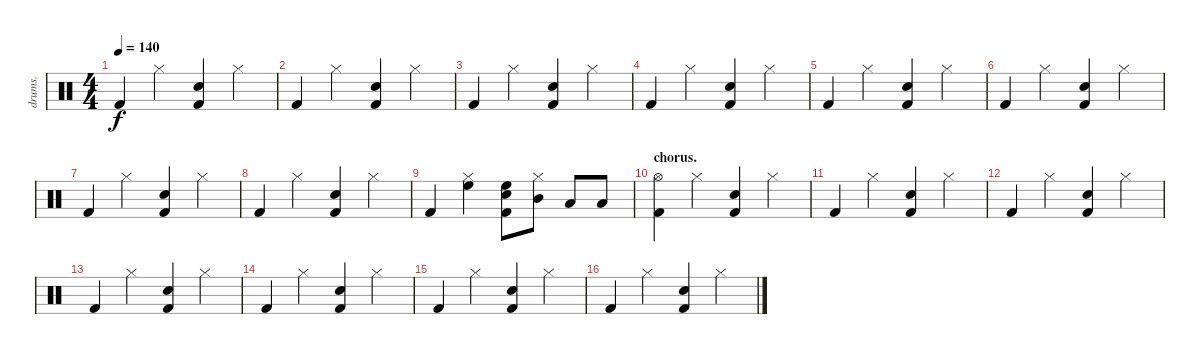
\track ("drums." "drums.") {instrument percussion}
\staff {score}
\articulation defaults
\ts (4 4)
\tempo 140
\clef neutral
\ks c "Kick (hit) 2".4{dy f} "Hi-Hat (closed)".4
("Electric Snare (hit)" "Kick (hit) 2").4 "Hi-Hat (closed)".4 |
"Kick (hit) 2".4 "Hi-Hat (closed)".4 ("Electric Snare (hit)" "Kick (hit) 2").4 "Hi-Hat (closed)".4 |
"Kick (hit) 2".4 "Hi-Hat (closed)".4 ("Electric Snare (hit)" "Kick (hit) 2").4 "Hi-Hat (closed)".4 |
"Kick (hit) 2".4 "Hi-Hat (closed)".4 ("Electric Snare (hit)" "Kick (hit) 2").4 "Hi-Hat (closed)".4 |
"Kick (hit) 2".4 "Hi-Hat (closed)".4 ("Electric Snare (hit)" "Kick (hit) 2").4 "Hi-Hat (closed)".4 |
"Kick (hit) 2".4 "Hi-Hat (closed)".4 ("Electric Snare (hit)" "Kick (hit) 2").4 "Hi-Hat (closed)".4 |
"Kick (hit) 2".4 "Hi-Hat (closed)".4 ("Electric Snare (hit)" "Kick (hit) 2").4 "Hi-Hat (closed)".4 |
"Kick (hit) 2".4 "Hi-Hat (closed)".4 ("Electric Snare (hit)" "Kick (hit) 2").4 "Hi-Hat (closed)".4 |
"Kick (hit) 2".4 ("High Floor Tom (hit)" "Hi-Hat (closed)").4 ("High Floor Tom (hit)" "Electric Snare (hit)" "Kick (hit) 2").8 ("Mid Tom (hit)" "Hi-Hat (closed)").8 "Low Tom (hit)".8 "Low Floor Tom (hit)".8 |
\section ("" "chorus.")
("Hi-Hat (open)" "Kick (hit) 2").4 "Hi-Hat (closed)".4 ("Electric Snare (hit)" "Kick (hit) 2").4 "Hi-Hat (closed)".4 |
"Kick (hit) 2".4 "Hi-Hat (closed)".4 ("Electric Snare (hit)" "Kick (hit) 2").4 "Hi-Hat (closed)".4 |
"Kick (hit) 2".4 "Hi-Hat (closed)".4 ("Electric Snare (hit)" "Kick (hit) 2").4 "Hi-Hat (closed)".4 |
"Kick (hit) 2".4 "Hi-Hat (closed)".4 ("Electric Snare (hit)" "Kick (hit) 2").4 "Hi-Hat (closed)".4 |
"Kick (hit) 2".4 "Hi-Hat (closed)".4 ("Electric Snare (hit)" "Kick (hit) 2").4 "Hi-Hat (closed)".4 |
"Kick (hit) 2".4 "Hi-Hat (closed)".4 ("Electric Snare (hit)" "Kick (hit) 2").4 "Hi-Hat (closed)".4 |
"Kick (hit) 2".4 "Hi-Hat (closed)".4 ("Electric Snare (hit)" "Kick (hit) 2").4 "Hi-Hat (closed)".4
